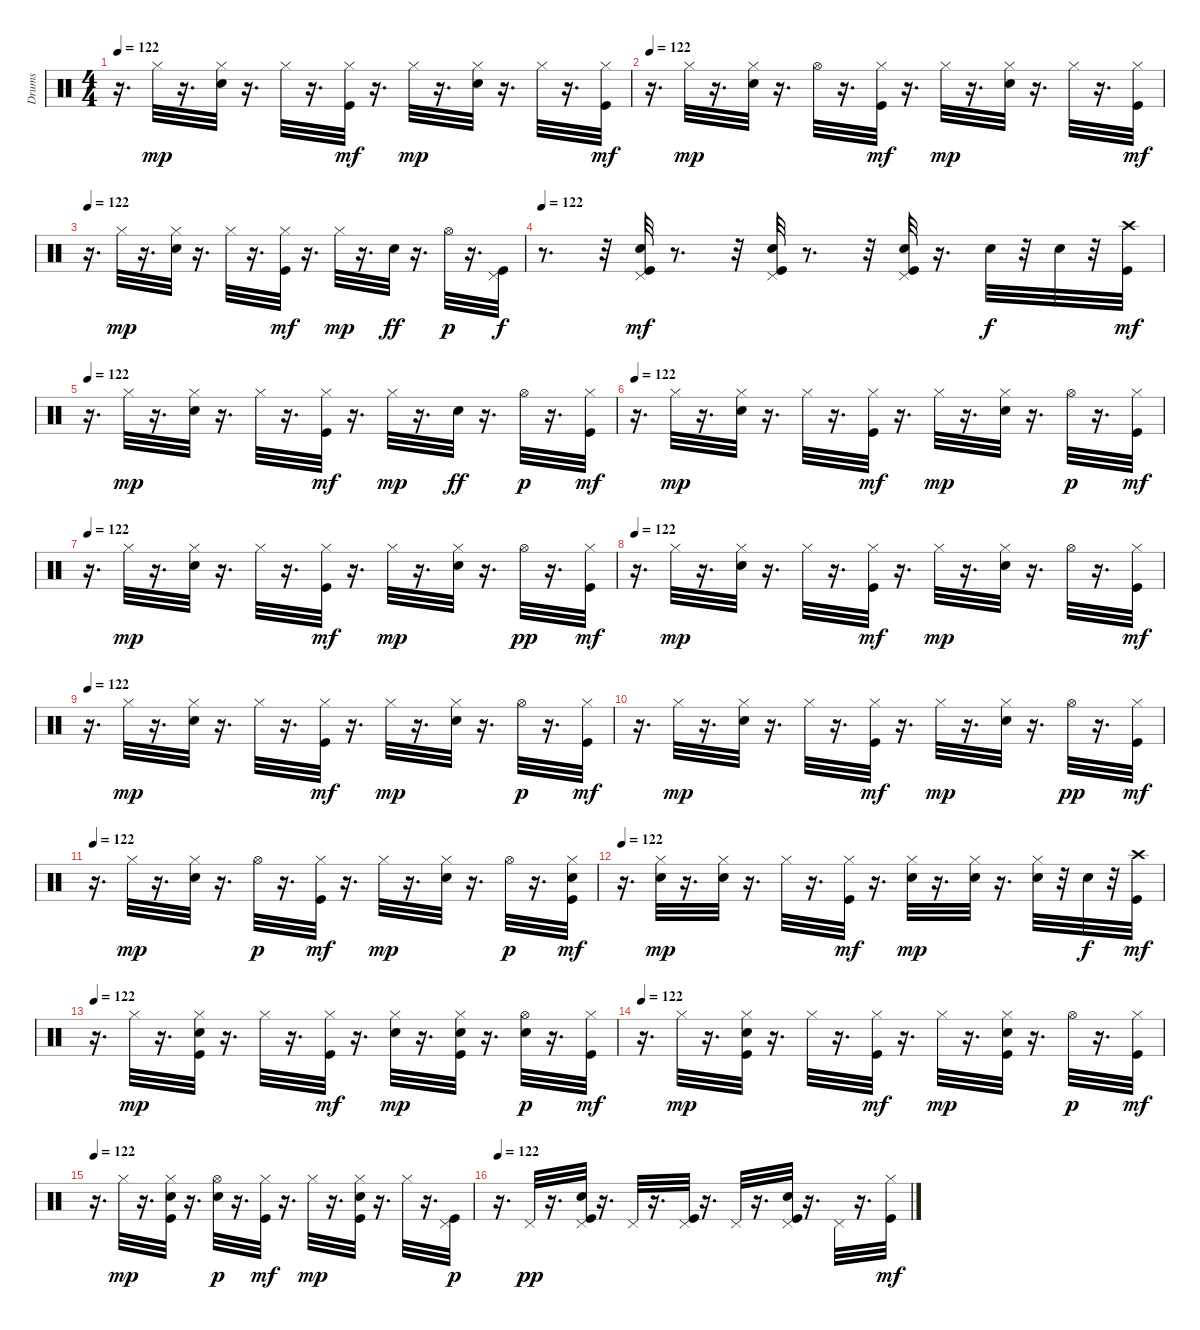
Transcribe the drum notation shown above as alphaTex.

\track ("Drums" "Drums") {instrument percussion}
\staff {score}
\articulation defaults
\ts (4 4)
\tempo 122
\clef neutral
\ks c
r.16{d dy mf} "Hi-Hat (closed)".32{dy mp} r.16{d} ("Snare (hit) 2" "Hi-Hat (closed)").32 r.16{d} "Hi-Hat (closed)".32 r.16{d} ("Kick (hit)" "Hi-Hat (closed)").32{dy mf} r.16{d} "Hi-Hat (closed)".32{dy mp} r.16{d} ("Snare (hit) 2" "Hi-Hat (closed)").32 r.16{d} "Hi-Hat (closed)".32 r.16{d} ("Kick (hit)" "Hi-Hat (closed)").32{dy mf} |
\tempo 122
r.16{d} "Hi-Hat (closed)".32{dy mp} r.16{d} ("Snare (hit) 2" "Hi-Hat (closed)").32 r.16{d} "Hi-Hat (open)".32 r.16{d} ("Kick (hit)" "Hi-Hat (closed)").32{dy mf} r.16{d} "Hi-Hat (closed)".32{dy mp} r.16{d} ("Snare (hit) 2" "Hi-Hat (closed)").32 r.16{d} "Hi-Hat (closed)".32 r.16{d} ("Kick (hit)" "Hi-Hat (closed)").32{dy mf} |
\tempo 122
r.16{d} "Hi-Hat (closed)".32{dy mp} r.16{d} ("Snare (hit) 2" "Hi-Hat (closed)").32 r.16{d} "Hi-Hat (closed)".32 r.16{d} ("Kick (hit)" "Hi-Hat (closed)").32{dy mf} r.16{d} "Hi-Hat (closed)".32{dy mp} r.16{d} "Snare (hit) 2".32{dy ff} r.16{d} "Hi-Hat (open)".32{dy p} r.16{d} ("Kick (hit)" "Pedal Hi-Hat (hit)").32{dy f} |
\tempo 122
r.8{d} r.32 ("Kick (hit)" "Snare (hit) 2" "Pedal Hi-Hat (hit)").32{dy mf} r.8{d} r.32 ("Kick (hit)" "Snare (hit) 2" "Pedal Hi-Hat (hit)").32 r.8{d} r.32 ("Kick (hit)" "Snare (hit) 2" "Pedal Hi-Hat (hit)").32 r.16{d} "Snare (hit) 2".32{dy f} r.32 "Snare (hit) 2".32 r.32 ("Kick (hit)" "Crash high (hit)").32{dy mf} |
\tempo 122
r.16{d} "Hi-Hat (closed)".32{dy mp} r.16{d} ("Snare (hit) 2" "Hi-Hat (closed)").32 r.16{d} "Hi-Hat (closed)".32 r.16{d} ("Kick (hit)" "Hi-Hat (closed)").32{dy mf} r.16{d} "Hi-Hat (closed)".32{dy mp} r.16{d} "Snare (hit) 2".32{dy ff} r.16{d} "Hi-Hat (open)".32{dy p} r.16{d} ("Kick (hit)" "Hi-Hat (closed)").32{dy mf} |
\tempo 122
r.16{d} "Hi-Hat (closed)".32{dy mp} r.16{d} ("Snare (hit) 2" "Hi-Hat (closed)").32 r.16{d} "Hi-Hat (closed)".32 r.16{d} ("Kick (hit)" "Hi-Hat (closed)").32{dy mf} r.16{d} "Hi-Hat (closed)".32{dy mp} r.16{d} ("Snare (hit) 2" "Hi-Hat (closed)").32 r.16{d} "Hi-Hat (open)".32{dy p} r.16{d} ("Kick (hit)" "Hi-Hat (closed)").32{dy mf} |
\tempo 122
r.16{d} "Hi-Hat (closed)".32{dy mp} r.16{d} ("Snare (hit) 2" "Hi-Hat (closed)").32 r.16{d} "Hi-Hat (closed)".32 r.16{d} ("Kick (hit)" "Hi-Hat (closed)").32{dy mf} r.16{d} "Hi-Hat (closed)".32{dy mp} r.16{d} ("Snare (hit) 2" "Hi-Hat (closed)").32 r.16{d} "Hi-Hat (open)".32{dy pp} r.16{d} ("Kick (hit)" "Hi-Hat (closed)").32{dy mf} |
\tempo 122
r.16{d} "Hi-Hat (closed)".32{dy mp} r.16{d} ("Snare (hit) 2" "Hi-Hat (closed)").32 r.16{d} "Hi-Hat (closed)".32 r.16{d} ("Kick (hit)" "Hi-Hat (closed)").32{dy mf} r.16{d} "Hi-Hat (closed)".32{dy mp} r.16{d} ("Snare (hit) 2" "Hi-Hat (closed)").32 r.16{d} "Hi-Hat (open)".32 r.16{d} ("Kick (hit)" "Hi-Hat (closed)").32{dy mf} |
\tempo 122
r.16{d} "Hi-Hat (closed)".32{dy mp} r.16{d} ("Snare (hit) 2" "Hi-Hat (closed)").32 r.16{d} "Hi-Hat (closed)".32 r.16{d} ("Kick (hit)" "Hi-Hat (closed)").32{dy mf} r.16{d} "Hi-Hat (closed)".32{dy mp} r.16{d} ("Snare (hit) 2" "Hi-Hat (closed)").32 r.16{d} "Hi-Hat (open)".32{dy p} r.16{d} ("Kick (hit)" "Hi-Hat (closed)").32{dy mf} |
r.16{d} "Hi-Hat (closed)".32{dy mp} r.16{d} ("Snare (hit) 2" "Hi-Hat (closed)").32 r.16{d} "Hi-Hat (closed)".32 r.16{d} ("Kick (hit)" "Hi-Hat (closed)").32{dy mf} r.16{d} "Hi-Hat (closed)".32{dy mp} r.16{d} ("Snare (hit) 2" "Hi-Hat (closed)").32 r.16{d} "Hi-Hat (open)".32{dy pp} r.16{d} ("Kick (hit)" "Hi-Hat (closed)").32{dy mf} |
\tempo 122
r.16{d} "Hi-Hat (closed)".32{dy mp} r.16{d} ("Snare (hit) 2" "Hi-Hat (closed)").32 r.16{d} "Hi-Hat (open)".32{dy p} r.16{d} ("Kick (hit)" "Hi-Hat (closed)").32{dy mf} r.16{d} "Hi-Hat (closed)".32{dy mp} r.16{d} ("Snare (hit) 2" "Hi-Hat (closed)").32 r.16{d} "Hi-Hat (open)".32{dy p} r.16{d} ("Kick (hit)" "Snare (hit) 2" "Hi-Hat (closed)").32{dy mf} |
\tempo 122
r.16{d} ("Snare (hit) 2" "Hi-Hat (closed)").32{dy mp} r.16{d} ("Snare (hit) 2" "Hi-Hat (closed)").32 r.16{d} "Hi-Hat (closed)".32 r.16{d} ("Kick (hit)" "Hi-Hat (closed)").32{dy mf} r.16{d} ("Snare (hit) 2" "Hi-Hat (closed)").32{dy mp} r.16{d} ("Snare (hit) 2" "Hi-Hat (closed)").32 r.16{d} ("Snare (hit) 2" "Hi-Hat (closed)").32 r.32 "Snare (hit) 2".32{dy f} r.32 ("Kick (hit)" "Crash high (hit)").32{dy mf} |
\tempo 122
r.16{d} "Hi-Hat (closed)".32{dy mp} r.16{d} ("Kick (hit)" "Snare (hit) 2" "Hi-Hat (closed)").32 r.16{d} "Hi-Hat (closed)".32 r.16{d} ("Kick (hit)" "Hi-Hat (closed)").32{dy mf} r.16{d} ("Snare (hit) 2" "Hi-Hat (closed)").32{dy mp} r.16{d} ("Kick (hit)" "Snare (hit) 2" "Hi-Hat (closed)").32 r.16{d} ("Snare (hit) 2" "Hi-Hat (open)").32{dy p} r.16{d} ("Kick (hit)" "Hi-Hat (closed)").32{dy mf} |
\tempo 122
r.16{d} "Hi-Hat (closed)".32{dy mp} r.16{d} ("Kick (hit)" "Snare (hit) 2" "Hi-Hat (closed)").32 r.16{d} "Hi-Hat (closed)".32 r.16{d} ("Kick (hit)" "Hi-Hat (closed)").32{dy mf} r.16{d} "Hi-Hat (closed)".32{dy mp} r.16{d} ("Kick (hit)" "Snare (hit) 2" "Hi-Hat (closed)").32 r.16{d} "Hi-Hat (open)".32{dy p} r.16{d} ("Kick (hit)" "Hi-Hat (closed)").32{dy mf} |
\tempo 122
r.16{d} "Hi-Hat (closed)".32{dy mp} r.16{d} ("Kick (hit)" "Snare (hit) 2" "Hi-Hat (closed)").32 r.16{d} ("Snare (hit) 2" "Hi-Hat (open)").32{dy p} r.16{d} ("Kick (hit)" "Hi-Hat (closed)").32{dy mf} r.16{d} "Hi-Hat (closed)".32{dy mp} r.16{d} ("Kick (hit)" "Snare (hit) 2" "Hi-Hat (closed)").32 r.16{d} "Hi-Hat (closed)".32 r.16{d} ("Kick (hit)" "Pedal Hi-Hat (hit)").32{dy p} |
\tempo 122
r.16{d} "Pedal Hi-Hat (hit)".32{dy pp} r.16{d} ("Kick (hit)" "Snare (hit) 2" "Pedal Hi-Hat (hit)").32 r.16{d} "Pedal Hi-Hat (hit)".32 r.16{d} ("Kick (hit)" "Pedal Hi-Hat (hit)").32 r.16{d} "Pedal Hi-Hat (hit)".32 r.16{d} ("Kick (hit)" "Snare (hit) 2" "Pedal Hi-Hat (hit)").32 r.16{d} "Pedal Hi-Hat (hit)".32 r.16{d} ("Kick (hit)" "Hi-Hat (closed)").32{dy mf}
